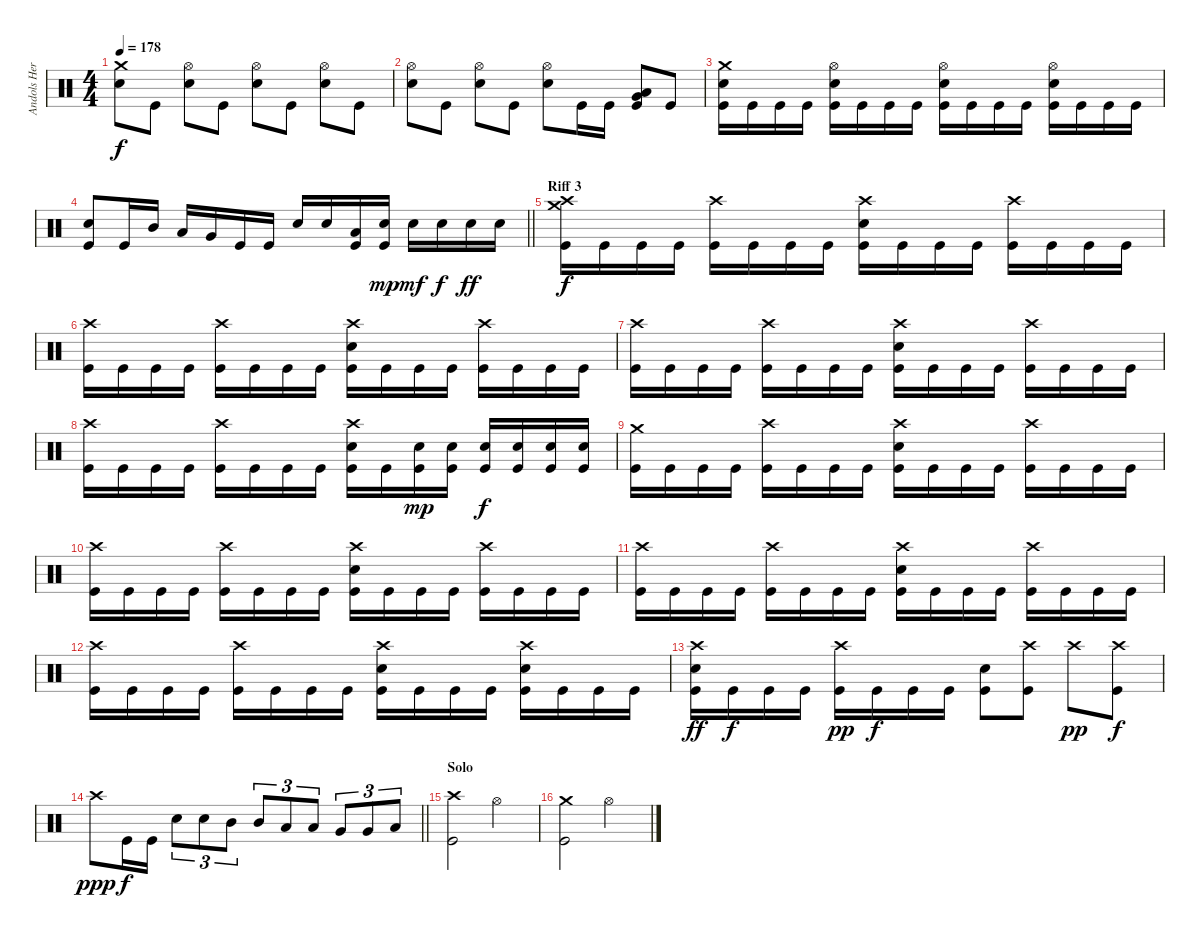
\track ("Andols Herrick" "Andols Her") {instrument percussion}
\staff {score}
\articulation defaults
\ts (4 4)
\tempo 178
\clef neutral
\ks c
("Crash medium (hit)" "Electric Snare (hit)").8{dy f} "Kick (hit)".8 ("Hi-Hat (open)" "Electric Snare (hit)").8 "Kick (hit)".8 ("Hi-Hat (open)" "Electric Snare (hit)").8 "Kick (hit)".8 ("Hi-Hat (open)" "Electric Snare (hit)").8 "Kick (hit)".8 |
("Hi-Hat (open)" "Electric Snare (hit)").8 "Kick (hit)".8 ("Hi-Hat (open)" "Electric Snare (hit)").8 "Kick (hit)".8 ("Hi-Hat (open)" "Electric Snare (hit)").8 "Kick (hit)".16 "Kick (hit)".16 ("Very Low Tom (hit)" "Low Floor Tom (hit)" "Kick (hit)").8 "Kick (hit)".8 |
("Crash medium (hit)" "Electric Snare (hit)" "Kick (hit)").16 "Kick (hit)".16 "Kick (hit)".16 "Kick (hit)".16 ("Hi-Hat (open)" "Electric Snare (hit)" "Kick (hit)").16 "Kick (hit)".16 "Kick (hit)".16 "Kick (hit)".16 ("Hi-Hat (open)" "Electric Snare (hit)" "Kick (hit)").16 "Kick (hit)".16 "Kick (hit)".16 "Kick (hit)".16 ("Hi-Hat (open)" "Electric Snare (hit)" "Kick (hit)").16 "Kick (hit)".16 "Kick (hit)".16 "Kick (hit)".16 |
\barLineRight lightlight
("Electric Snare (hit)" "Kick (hit)").8 "Kick (hit)".16 "Mid Tom (hit)".16 "Low Tom (hit)".16 "Very Low Tom (hit)".16 "Kick (hit)".16 "Kick (hit)".16 "Electric Snare (hit)".16 "Electric Snare (hit)".16 ("Low Tom (hit)" "Kick (hit)").16 ("Electric Snare (hit)" "Kick (hit)").16{dy mp} "Electric Snare (hit)".16{dy mf} "Electric Snare (hit)".16{dy f} "Electric Snare (hit)".16{dy ff} "Electric Snare (hit)".16 |
\section ("" "Riff 3")
("Crash high (hit)" "Crash medium (hit)" "Kick (hit)").16{dy f} "Kick (hit)".16 "Kick (hit)".16 "Kick (hit)".16 ("Crash high (hit)" "Kick (hit)").16 "Kick (hit)".16 "Kick (hit)".16 "Kick (hit)".16 ("Crash high (hit)" "Electric Snare (hit)" "Kick (hit)").16 "Kick (hit)".16 "Kick (hit)".16 "Kick (hit)".16 ("Crash high (hit)" "Kick (hit)").16 "Kick (hit)".16 "Kick (hit)".16 "Kick (hit)".16 |
("Crash high (hit)" "Kick (hit)").16 "Kick (hit)".16 "Kick (hit)".16 "Kick (hit)".16 ("Crash high (hit)" "Kick (hit)").16 "Kick (hit)".16 "Kick (hit)".16 "Kick (hit)".16 ("Crash high (hit)" "Electric Snare (hit)" "Kick (hit)").16 "Kick (hit)".16 "Kick (hit)".16 "Kick (hit)".16 ("Crash high (hit)" "Kick (hit)").16 "Kick (hit)".16 "Kick (hit)".16 "Kick (hit)".16 |
("Crash high (hit)" "Kick (hit)").16 "Kick (hit)".16 "Kick (hit)".16 "Kick (hit)".16 ("Crash high (hit)" "Kick (hit)").16 "Kick (hit)".16 "Kick (hit)".16 "Kick (hit)".16 ("Crash high (hit)" "Electric Snare (hit)" "Kick (hit)").16 "Kick (hit)".16 "Kick (hit)".16 "Kick (hit)".16 ("Crash high (hit)" "Kick (hit)").16 "Kick (hit)".16 "Kick (hit)".16 "Kick (hit)".16 |
("Crash high (hit)" "Kick (hit)").16 "Kick (hit)".16 "Kick (hit)".16 "Kick (hit)".16 ("Crash high (hit)" "Kick (hit)").16 "Kick (hit)".16 "Kick (hit)".16 "Kick (hit)".16 ("Crash high (hit)" "Electric Snare (hit)" "Kick (hit)").16 "Kick (hit)".16 ("Electric Snare (hit)" "Kick (hit)").16{dy mp} ("Electric Snare (hit)" "Kick (hit)").16 ("Electric Snare (hit)" "Kick (hit)").16{dy f} ("Electric Snare (hit)" "Kick (hit)").16 ("Electric Snare (hit)" "Kick (hit)").16 ("Electric Snare (hit)" "Kick (hit)").16 |
("Crash medium (hit)" "Kick (hit)").16 "Kick (hit)".16 "Kick (hit)".16 "Kick (hit)".16 ("Crash high (hit)" "Kick (hit)").16 "Kick (hit)".16 "Kick (hit)".16 "Kick (hit)".16 ("Crash high (hit)" "Electric Snare (hit)" "Kick (hit)").16 "Kick (hit)".16 "Kick (hit)".16 "Kick (hit)".16 ("Crash high (hit)" "Kick (hit)").16 "Kick (hit)".16 "Kick (hit)".16 "Kick (hit)".16 |
("Crash high (hit)" "Kick (hit)").16 "Kick (hit)".16 "Kick (hit)".16 "Kick (hit)".16 ("Crash high (hit)" "Kick (hit)").16 "Kick (hit)".16 "Kick (hit)".16 "Kick (hit)".16 ("Crash high (hit)" "Electric Snare (hit)" "Kick (hit)").16 "Kick (hit)".16 "Kick (hit)".16 "Kick (hit)".16 ("Crash high (hit)" "Kick (hit)").16 "Kick (hit)".16 "Kick (hit)".16 "Kick (hit)".16 |
("Crash high (hit)" "Kick (hit)").16 "Kick (hit)".16 "Kick (hit)".16 "Kick (hit)".16 ("Crash high (hit)" "Kick (hit)").16 "Kick (hit)".16 "Kick (hit)".16 "Kick (hit)".16 ("Crash high (hit)" "Electric Snare (hit)" "Kick (hit)").16 "Kick (hit)".16 "Kick (hit)".16 "Kick (hit)".16 ("Crash high (hit)" "Kick (hit)").16 "Kick (hit)".16 "Kick (hit)".16 "Kick (hit)".16 |
("Crash high (hit)" "Kick (hit)").16 "Kick (hit)".16 "Kick (hit)".16 "Kick (hit)".16 ("Crash high (hit)" "Kick (hit)").16 "Kick (hit)".16 "Kick (hit)".16 "Kick (hit)".16 ("Crash high (hit)" "Electric Snare (hit)" "Kick (hit)").16 "Kick (hit)".16 "Kick (hit)".16 "Kick (hit)".16 ("Crash high (hit)" "Electric Snare (hit)" "Kick (hit)").16 "Kick (hit)".16 "Kick (hit)".16 "Kick (hit)".16 |
("Crash high (hit)" "Electric Snare (hit)" "Kick (hit)").16{dy ff} "Kick (hit)".16{dy f} "Kick (hit)".16 "Kick (hit)".16 ("Crash high (hit)" "Kick (hit)").16{dy pp} "Kick (hit)".16{dy f} "Kick (hit)".16 "Kick (hit)".16 ("Electric Snare (hit)" "Kick (hit)").8 ("Crash high (hit)" "Kick (hit)").8 "Crash high (hit)".8{dy pp} ("Crash high (hit)" "Kick (hit)").8{dy f} |
\barLineRight lightlight "Crash high (hit)".8{dy ppp} "Kick (hit)".16{dy f} "Kick (hit)".16 "Electric Snare (hit)".8{tu (3 2)} "Electric Snare (hit)".8{tu (3 2)} "Mid Tom (hit)".8{tu (3 2)} "Mid Tom (hit)".8{tu (3 2)} "Low Tom (hit)".8{tu (3 2)} "Low Tom (hit)".8{tu (3 2)} "Very Low Tom (hit)".8{tu (3 2)} "Very Low Tom (hit)".8{tu (3 2)} "Low Floor Tom (hit)".8{tu (3 2)}
|
\section ("" "Solo")
("Crash high (hit)" "Kick (hit)").2 "Hi-Hat (open)".2 |
("Crash medium (hit)" "Kick (hit)").2 "Hi-Hat (open)".2
